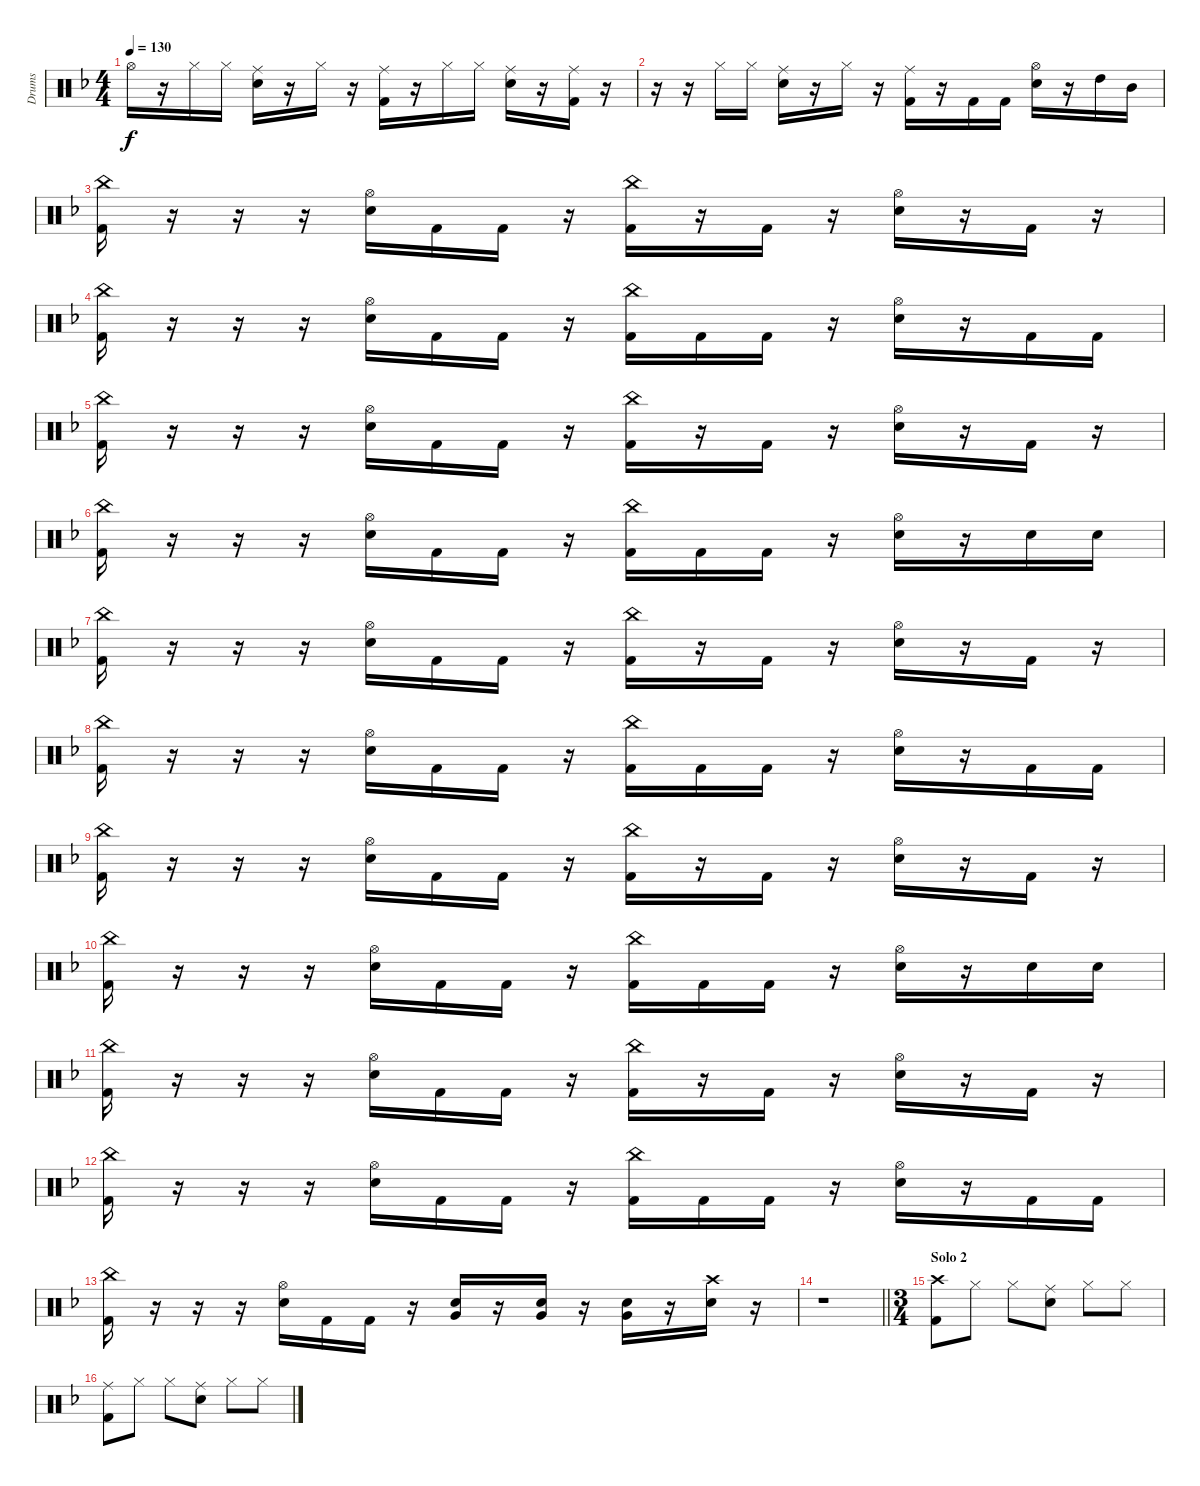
\track ("Drums" "Drums") {instrument percussion}
\staff {score}
\articulation defaults
\ts (4 4)
\tempo 130
\clef neutral
\ks dminor "Hi-Hat (open)".16{dy f}
r.16 "Hi-Hat (closed)".16 "Hi-Hat (closed)".16 ("Ride (middle)" "Snare (hit) 2").16 r.16 "Hi-Hat (closed)".16 r.16 ("Ride (middle)" "Kick (hit) 2").16 r.16 "Hi-Hat (closed)".16 "Hi-Hat (closed)".16 ("Ride (middle)" "Snare (hit) 2").16 r.16 ("Ride (middle)" "Kick (hit) 2").16 r.16 |
r.16 r.16 "Hi-Hat (closed)".16 "Hi-Hat (closed)".16 ("Ride (middle)" "Snare (hit) 2").16 r.16 "Hi-Hat (closed)".16 r.16 ("Ride (middle)" "Kick (hit) 2").16 r.16 "Kick (hit) 2".16 "Kick (hit) 2".16 ("Hi-Hat (open)" "Snare (hit) 2").16 r.16 "High Tom (hit)".16 "Mid Tom (hit)".16 |
("Kick (hit) 2" "China (hit)").16 r.16 r.16 r.16 ("Snare (hit) 2" "Hi-Hat (open)").16 "Kick (hit) 2".16 "Kick (hit) 2".16 r.16 ("Kick (hit) 2" "China (hit)").16 r.16 "Kick (hit) 2".16 r.16 ("Snare (hit) 2" "Hi-Hat (open)").16 r.16 "Kick (hit) 2".16 r.16 |
("Kick (hit) 2" "China (hit)").16 r.16 r.16 r.16 ("Snare (hit) 2" "Hi-Hat (open)").16 "Kick (hit) 2".16 "Kick (hit) 2".16 r.16 ("Kick (hit) 2" "China (hit)").16 "Kick (hit) 2".16 "Kick (hit) 2".16 r.16 ("Snare (hit) 2" "Hi-Hat (open)").16 r.16 "Kick (hit) 2".16 "Kick (hit) 2".16 |
("Kick (hit) 2" "China (hit)").16 r.16 r.16 r.16 ("Snare (hit) 2" "Hi-Hat (open)").16 "Kick (hit) 2".16 "Kick (hit) 2".16 r.16 ("Kick (hit) 2" "China (hit)").16 r.16 "Kick (hit) 2".16 r.16 ("Snare (hit) 2" "Hi-Hat (open)").16 r.16 "Kick (hit) 2".16 r.16 |
("Kick (hit) 2" "China (hit)").16 r.16 r.16 r.16 ("Snare (hit) 2" "Hi-Hat (open)").16 "Kick (hit) 2".16 "Kick (hit) 2".16 r.16 ("Kick (hit) 2" "China (hit)").16 "Kick (hit) 2".16 "Kick (hit) 2".16 r.16 ("Snare (hit) 2" "Hi-Hat (open)").16 r.16 "Snare (hit) 2".16 "Snare (hit) 2".16 |
("Kick (hit) 2" "China (hit)").16 r.16 r.16 r.16 ("Snare (hit) 2" "Hi-Hat (open)").16 "Kick (hit) 2".16 "Kick (hit) 2".16 r.16 ("Kick (hit) 2" "China (hit)").16 r.16 "Kick (hit) 2".16 r.16 ("Snare (hit) 2" "Hi-Hat (open)").16 r.16 "Kick (hit) 2".16 r.16 |
("Kick (hit) 2" "China (hit)").16 r.16 r.16 r.16 ("Snare (hit) 2" "Hi-Hat (open)").16 "Kick (hit) 2".16 "Kick (hit) 2".16 r.16 ("Kick (hit) 2" "China (hit)").16 "Kick (hit) 2".16 "Kick (hit) 2".16 r.16 ("Snare (hit) 2" "Hi-Hat (open)").16 r.16 "Kick (hit) 2".16 "Kick (hit) 2".16 |
("Kick (hit) 2" "China (hit)").16 r.16 r.16 r.16 ("Snare (hit) 2" "Hi-Hat (open)").16 "Kick (hit) 2".16 "Kick (hit) 2".16 r.16 ("Kick (hit) 2" "China (hit)").16 r.16 "Kick (hit) 2".16 r.16 ("Snare (hit) 2" "Hi-Hat (open)").16 r.16 "Kick (hit) 2".16 r.16 |
("Kick (hit) 2" "China (hit)").16 r.16 r.16 r.16 ("Snare (hit) 2" "Hi-Hat (open)").16 "Kick (hit) 2".16 "Kick (hit) 2".16 r.16 ("Kick (hit) 2" "China (hit)").16 "Kick (hit) 2".16 "Kick (hit) 2".16 r.16 ("Snare (hit) 2" "Hi-Hat (open)").16 r.16 "Snare (hit) 2".16 "Snare (hit) 2".16 |
("Kick (hit) 2" "China (hit)").16 r.16 r.16 r.16 ("Snare (hit) 2" "Hi-Hat (open)").16 "Kick (hit) 2".16 "Kick (hit) 2".16 r.16 ("Kick (hit) 2" "China (hit)").16 r.16 "Kick (hit) 2".16 r.16 ("Snare (hit) 2" "Hi-Hat (open)").16 r.16 "Kick (hit) 2".16 r.16 |
("Kick (hit) 2" "China (hit)").16 r.16 r.16 r.16 ("Snare (hit) 2" "Hi-Hat (open)").16 "Kick (hit) 2".16 "Kick (hit) 2".16 r.16 ("Kick (hit) 2" "China (hit)").16 "Kick (hit) 2".16 "Kick (hit) 2".16 r.16 ("Snare (hit) 2" "Hi-Hat (open)").16 r.16 "Kick (hit) 2".16 "Kick (hit) 2".16 |
("Kick (hit) 2" "China (hit)").16 r.16 r.16 r.16 ("Snare (hit) 2" "Hi-Hat (open)").16 "Kick (hit) 2".16 "Kick (hit) 2".16 r.16 ("Snare (hit) 2" "Very Low Tom (hit)").16 r.16 ("Very Low Tom (hit)" "Snare (hit) 2").16 r.16 ("Snare (hit) 2" "Very Low Tom (hit)").16 r.16 ("Crash high (hit)" "Snare (hit) 2").16 r.16 |
\barLineRight lightlight
r.1 |
\ts (3 4)
\section ("" "Solo 2")
("Kick (hit) 2" "Crash high (hit)").8 "Hi-Hat (closed)".8 "Hi-Hat (closed)".8 ("Snare (hit) 2" "Ride (middle)").8 "Hi-Hat (closed)".8 "Hi-Hat (closed)".8 |
("Kick (hit) 2" "Ride (middle)").8 "Hi-Hat (closed)".8 "Hi-Hat (closed)".8 ("Snare (hit) 2" "Ride (middle)").8 "Hi-Hat (closed)".8 "Hi-Hat (closed)".8
